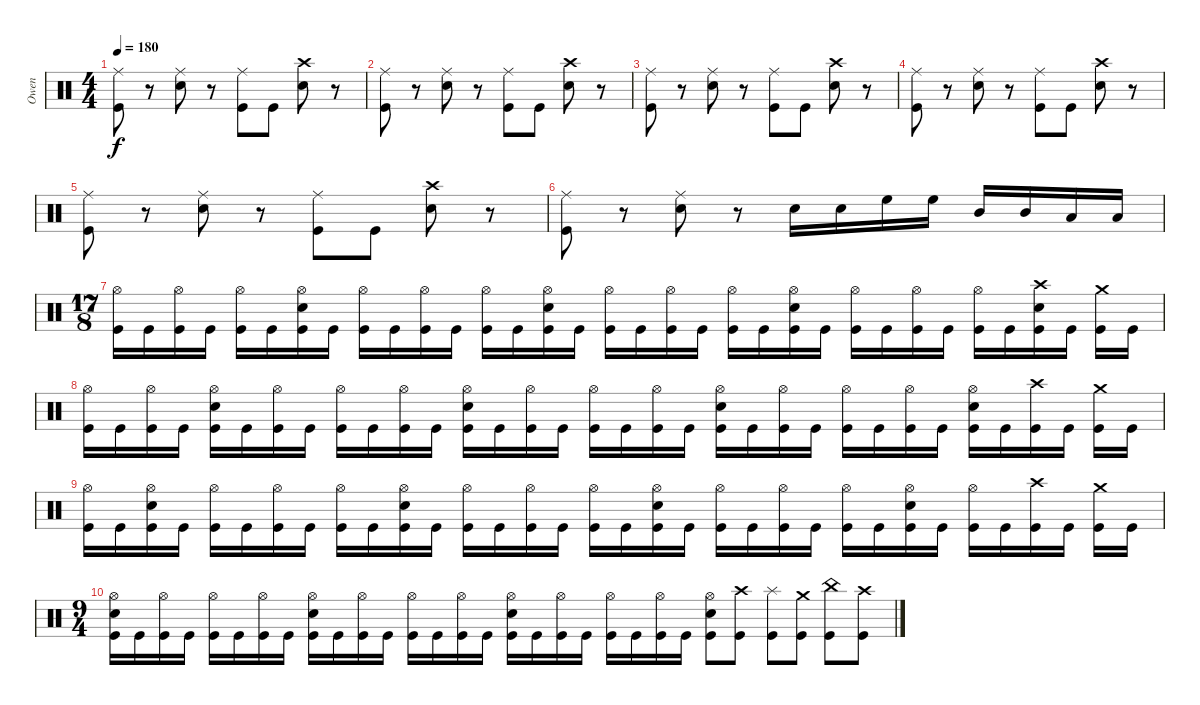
\track ("Owen" "Owen") {instrument percussion}
\staff {score}
\articulation defaults
\ts (4 4)
\tempo 180
\clef neutral
\ks c
("Ride (middle)" "Kick (hit)").8{dy f} r.8 ("Ride (middle)" "Snare (hit) 2").8 r.8 ("Ride (middle)" "Kick (hit)").8 "Kick (hit)".8 ("Crash high (hit)" "Snare (hit) 2").8 r.8 |
("Ride (middle)" "Kick (hit)").8 r.8 ("Ride (middle)" "Snare (hit) 2").8 r.8 ("Ride (middle)" "Kick (hit)").8 "Kick (hit)".8 ("Crash high (hit)" "Snare (hit) 2").8 r.8 |
("Ride (middle)" "Kick (hit)").8 r.8 ("Ride (middle)" "Snare (hit) 2").8 r.8 ("Ride (middle)" "Kick (hit)").8 "Kick (hit)".8 ("Crash high (hit)" "Snare (hit) 2").8 r.8 |
("Ride (middle)" "Kick (hit)").8 r.8 ("Ride (middle)" "Snare (hit) 2").8 r.8 ("Ride (middle)" "Kick (hit)").8 "Kick (hit)".8 ("Crash high (hit)" "Snare (hit) 2").8 r.8 |
("Ride (middle)" "Kick (hit)").8 r.8 ("Ride (middle)" "Snare (hit) 2").8 r.8 ("Ride (middle)" "Kick (hit)").8 "Kick (hit)".8 ("Crash high (hit)" "Snare (hit) 2").8 r.8 |
("Ride (middle)" "Kick (hit)").8 r.8 ("Ride (middle)" "Snare (hit) 2").8 r.8 "Snare (hit) 2".16 "Snare (hit) 2".16 "High Floor Tom (hit)".16 "High Floor Tom (hit)".16 "Mid Tom (hit)".16 "Mid Tom (hit)".16 "Low Tom (hit)".16 "Low Tom (hit)".16 |
\ts (17 8)
("Hi-Hat (open)" "Kick (hit)").16 "Kick (hit)".16 ("Hi-Hat (open)" "Kick (hit)").16 "Kick (hit)".16 ("Hi-Hat (open)" "Kick (hit)").16 "Kick (hit)".16 ("Hi-Hat (open)" "Snare (hit) 2" "Kick (hit)").16 "Kick (hit)".16 ("Hi-Hat (open)" "Kick (hit)").16 "Kick (hit)".16 ("Hi-Hat (open)" "Kick (hit)").16 "Kick (hit)".16 ("Hi-Hat (open)" "Kick (hit)").16 "Kick (hit)".16 ("Hi-Hat (open)" "Snare (hit) 2" "Kick (hit)").16 "Kick (hit)".16 ("Hi-Hat (open)" "Kick (hit)").16 "Kick (hit)".16 ("Hi-Hat (open)" "Kick (hit)").16 "Kick (hit)".16 ("Hi-Hat (open)" "Kick (hit)").16 "Kick (hit)".16 ("Hi-Hat (open)" "Snare (hit) 2" "Kick (hit)").16 "Kick (hit)".16 ("Hi-Hat (open)" "Kick (hit)").16 "Kick (hit)".16 ("Hi-Hat (open)" "Kick (hit)").16 "Kick (hit)".16 ("Hi-Hat (open)" "Kick (hit)").16 "Kick (hit)".16 ("Crash high (hit)" "Snare (hit) 2" "Kick (hit)").16 "Kick (hit)".16 ("Crash medium (hit)" "Kick (hit)").16 "Kick (hit)".16 |
("Hi-Hat (open)" "Kick (hit)").16 "Kick (hit)".16 ("Hi-Hat (open)" "Kick (hit)").16 "Kick (hit)".16 ("Hi-Hat (open)" "Snare (hit) 2" "Kick (hit)").16 "Kick (hit)".16 ("Hi-Hat (open)" "Kick (hit)").16 "Kick (hit)".16 ("Hi-Hat (open)" "Kick (hit)").16 "Kick (hit)".16 ("Hi-Hat (open)" "Kick (hit)").16 "Kick (hit)".16 ("Hi-Hat (open)" "Snare (hit) 2" "Kick (hit)").16 "Kick (hit)".16 ("Hi-Hat (open)" "Kick (hit)").16 "Kick (hit)".16 ("Hi-Hat (open)" "Kick (hit)").16 "Kick (hit)".16 ("Hi-Hat (open)" "Kick (hit)").16 "Kick (hit)".16 ("Hi-Hat (open)" "Snare (hit) 2" "Kick (hit)").16 "Kick (hit)".16 ("Hi-Hat (open)" "Kick (hit)").16 "Kick (hit)".16 ("Hi-Hat (open)" "Kick (hit)").16 "Kick (hit)".16 ("Hi-Hat (open)" "Kick (hit)").16 "Kick (hit)".16 ("Hi-Hat (open)" "Snare (hit) 2" "Kick (hit)").16 "Kick (hit)".16 ("Crash high (hit)" "Kick (hit)").16 "Kick (hit)".16 ("Crash medium (hit)" "Kick (hit)").16 "Kick (hit)".16 |
("Hi-Hat (open)" "Kick (hit)").16 "Kick (hit)".16 ("Hi-Hat (open)" "Snare (hit) 2" "Kick (hit)").16 "Kick (hit)".16 ("Hi-Hat (open)" "Kick (hit)").16 "Kick (hit)".16 ("Hi-Hat (open)" "Kick (hit)").16 "Kick (hit)".16 ("Hi-Hat (open)" "Kick (hit)").16 "Kick (hit)".16 ("Hi-Hat (open)" "Snare (hit) 2" "Kick (hit)").16 "Kick (hit)".16 ("Hi-Hat (open)" "Kick (hit)").16 "Kick (hit)".16 ("Hi-Hat (open)" "Kick (hit)").16 "Kick (hit)".16 ("Hi-Hat (open)" "Kick (hit)").16 "Kick (hit)".16 ("Hi-Hat (open)" "Snare (hit) 2" "Kick (hit)").16 "Kick (hit)".16 ("Hi-Hat (open)" "Kick (hit)").16 "Kick (hit)".16 ("Hi-Hat (open)" "Kick (hit)").16 "Kick (hit)".16 ("Hi-Hat (open)" "Kick (hit)").16 "Kick (hit)".16 ("Hi-Hat (open)" "Snare (hit) 2" "Kick (hit)").16 "Kick (hit)".16 ("Hi-Hat (open)" "Kick (hit)").16 "Kick (hit)".16 ("Crash high (hit)" "Kick (hit)").16 "Kick (hit)".16 ("Crash medium (hit)" "Kick (hit)").16 "Kick (hit)".16 |
\ts (9 4)
("Hi-Hat (open)" "Snare (hit) 2" "Kick (hit)").16 "Kick (hit)".16 ("Hi-Hat (open)" "Kick (hit)").16 "Kick (hit)".16 ("Hi-Hat (open)" "Kick (hit)").16 "Kick (hit)".16 ("Hi-Hat (open)" "Kick (hit)").16 "Kick (hit)".16 ("Hi-Hat (open)" "Snare (hit) 2" "Kick (hit)").16 "Kick (hit)".16 ("Hi-Hat (open)" "Kick (hit)").16 "Kick (hit)".16 ("Hi-Hat (open)" "Kick (hit)").16 "Kick (hit)".16 ("Hi-Hat (open)" "Kick (hit)").16 "Kick (hit)".16 ("Hi-Hat (open)" "Snare (hit) 2" "Kick (hit)").16 "Kick (hit)".16 ("Hi-Hat (open)" "Kick (hit)").16 "Kick (hit)".16 ("Hi-Hat (open)" "Kick (hit)").16 "Kick (hit)".16 ("Hi-Hat (open)" "Kick (hit)").16 "Kick (hit)".16 ("Hi-Hat (open)" "Snare (hit) 2" "Kick (hit)").8 ("Crash high (hit)" "Kick (hit)").8 ("Splash (hit)" "Kick (hit)").8 ("Crash medium (hit)" "Kick (hit)").8 ("China (hit)" "Kick (hit)").8 ("Crash high (hit)" "Kick (hit)").8
